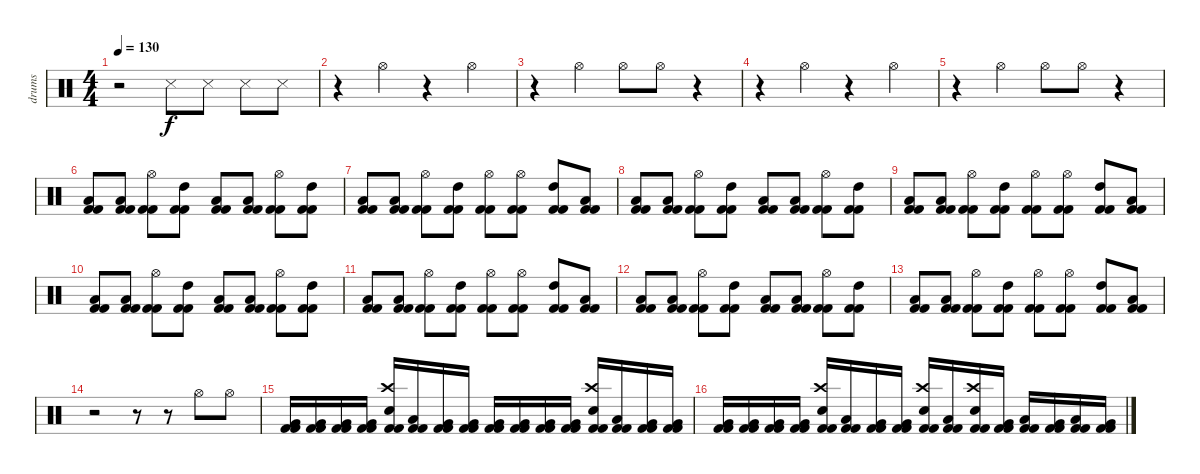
\track ("drums" "drums") {instrument percussion}
\staff {score}
\articulation defaults
\ts (4 4)
\tempo 130
\clef neutral
\ks c
r.2{dy f} "Snare (side stick) 3".8 "Snare (side stick) 3".8 "Snare (side stick) 3".8 "Snare (side stick) 3".8 |
r.4 "Hi-Hat (open)".4 r.4 "Hi-Hat (open)".4 |
r.4 "Hi-Hat (open)".4 "Hi-Hat (open)".8 "Hi-Hat (open)".8 r.4 |
r.4 "Hi-Hat (open)".4 r.4 "Hi-Hat (open)".4 |
r.4 "Hi-Hat (open)".4 "Hi-Hat (open)".8 "Hi-Hat (open)".8 r.4 |
("Low Tom (hit)" "Kick (hit) 2" "Kick (hit) 2").8 ("Low Tom (hit)" "Kick (hit) 2" "Kick (hit) 2").8 ("Hi-Hat (open)" "Kick (hit) 2" "Kick (hit) 2").8 ("High Tom (hit)" "Kick (hit) 2" "Kick (hit) 2").8 ("Low Tom (hit)" "Kick (hit) 2" "Kick (hit) 2").8 ("Low Tom (hit)" "Kick (hit) 2" "Kick (hit) 2").8 ("Hi-Hat (open)" "Kick (hit) 2" "Kick (hit) 2").8 ("High Tom (hit)" "Kick (hit) 2" "Kick (hit) 2").8 |
("Low Tom (hit)" "Kick (hit) 2" "Kick (hit) 2").8 ("Low Tom (hit)" "Kick (hit) 2" "Kick (hit) 2").8 ("Hi-Hat (open)" "Kick (hit) 2" "Kick (hit) 2").8 ("High Tom (hit)" "Kick (hit) 2" "Kick (hit) 2").8 ("Hi-Hat (open)" "Kick (hit) 2" "Kick (hit) 2").8 ("Hi-Hat (open)" "Kick (hit) 2" "Kick (hit) 2").8 ("High Tom (hit)" "Kick (hit) 2" "Kick (hit) 2").8 ("Low Tom (hit)" "Kick (hit) 2" "Kick (hit) 2").8 |
("Low Tom (hit)" "Kick (hit) 2" "Kick (hit) 2").8 ("Low Tom (hit)" "Kick (hit) 2" "Kick (hit) 2").8 ("Hi-Hat (open)" "Kick (hit) 2" "Kick (hit) 2").8 ("High Tom (hit)" "Kick (hit) 2" "Kick (hit) 2").8 ("Low Tom (hit)" "Kick (hit) 2" "Kick (hit) 2").8 ("Low Tom (hit)" "Kick (hit) 2" "Kick (hit) 2").8 ("Hi-Hat (open)" "Kick (hit) 2" "Kick (hit) 2").8 ("High Tom (hit)" "Kick (hit) 2" "Kick (hit) 2").8 |
("Low Tom (hit)" "Kick (hit) 2" "Kick (hit) 2").8 ("Low Tom (hit)" "Kick (hit) 2" "Kick (hit) 2").8 ("Hi-Hat (open)" "Kick (hit) 2" "Kick (hit) 2").8 ("High Tom (hit)" "Kick (hit) 2" "Kick (hit) 2").8 ("Hi-Hat (open)" "Kick (hit) 2" "Kick (hit) 2").8 ("Hi-Hat (open)" "Kick (hit) 2" "Kick (hit) 2").8 ("High Tom (hit)" "Kick (hit) 2" "Kick (hit) 2").8 ("Low Tom (hit)" "Kick (hit) 2" "Kick (hit) 2").8 |
("Low Tom (hit)" "Kick (hit) 2" "Kick (hit) 2").8 ("Low Tom (hit)" "Kick (hit) 2" "Kick (hit) 2").8 ("Hi-Hat (open)" "Kick (hit) 2" "Kick (hit) 2").8 ("High Tom (hit)" "Kick (hit) 2" "Kick (hit) 2").8 ("Low Tom (hit)" "Kick (hit) 2" "Kick (hit) 2").8 ("Low Tom (hit)" "Kick (hit) 2" "Kick (hit) 2").8 ("Hi-Hat (open)" "Kick (hit) 2" "Kick (hit) 2").8 ("High Tom (hit)" "Kick (hit) 2" "Kick (hit) 2").8 |
("Low Tom (hit)" "Kick (hit) 2" "Kick (hit) 2").8 ("Low Tom (hit)" "Kick (hit) 2" "Kick (hit) 2").8 ("Hi-Hat (open)" "Kick (hit) 2" "Kick (hit) 2").8 ("High Tom (hit)" "Kick (hit) 2" "Kick (hit) 2").8 ("Hi-Hat (open)" "Kick (hit) 2" "Kick (hit) 2").8 ("Hi-Hat (open)" "Kick (hit) 2" "Kick (hit) 2").8 ("High Tom (hit)" "Kick (hit) 2" "Kick (hit) 2").8 ("Low Tom (hit)" "Kick (hit) 2" "Kick (hit) 2").8 |
("Low Tom (hit)" "Kick (hit) 2" "Kick (hit) 2").8 ("Low Tom (hit)" "Kick (hit) 2" "Kick (hit) 2").8 ("Hi-Hat (open)" "Kick (hit) 2" "Kick (hit) 2").8 ("High Tom (hit)" "Kick (hit) 2" "Kick (hit) 2").8 ("Low Tom (hit)" "Kick (hit) 2" "Kick (hit) 2").8 ("Low Tom (hit)" "Kick (hit) 2" "Kick (hit) 2").8 ("Hi-Hat (open)" "Kick (hit) 2" "Kick (hit) 2").8 ("High Tom (hit)" "Kick (hit) 2" "Kick (hit) 2").8 |
("Low Tom (hit)" "Kick (hit) 2" "Kick (hit) 2").8 ("Low Tom (hit)" "Kick (hit) 2" "Kick (hit) 2").8 ("Hi-Hat (open)" "Kick (hit) 2" "Kick (hit) 2").8 ("High Tom (hit)" "Kick (hit) 2" "Kick (hit) 2").8 ("Hi-Hat (open)" "Kick (hit) 2" "Kick (hit) 2").8 ("Hi-Hat (open)" "Kick (hit) 2" "Kick (hit) 2").8 ("High Tom (hit)" "Kick (hit) 2" "Kick (hit) 2").8 ("Low Tom (hit)" "Kick (hit) 2" "Kick (hit) 2").8 |
r.2 r.8 r.8 "Hi-Hat (open)".8 "Hi-Hat (open)".8 |
("Very Low Tom (hit)" "Kick (hit) 2" "Kick (hit) 2").16 ("Very Low Tom (hit)" "Kick (hit) 2" "Kick (hit) 2").16 ("Very Low Tom (hit)" "Kick (hit) 2" "Kick (hit) 2").16 ("Very Low Tom (hit)" "Kick (hit) 2" "Kick (hit) 2").16 ("Crash high (hit)" "Electric Snare (hit)" "Kick (hit) 2" "Kick (hit) 2").16 ("Low Tom (hit)" "Kick (hit) 2" "Kick (hit) 2").16 ("Very Low Tom (hit)" "Kick (hit) 2" "Kick (hit) 2").16 ("Very Low Tom (hit)" "Kick (hit) 2" "Kick (hit) 2").16 ("Very Low Tom (hit)" "Kick (hit) 2" "Kick (hit) 2").16 ("Very Low Tom (hit)" "Kick (hit) 2" "Kick (hit) 2").16 ("Very Low Tom (hit)" "Kick (hit) 2" "Kick (hit) 2").16 ("Very Low Tom (hit)" "Kick (hit) 2" "Kick (hit) 2").16 ("Crash high (hit)" "Electric Snare (hit)" "Kick (hit) 2" "Kick (hit) 2").16 ("Low Tom (hit)" "Kick (hit) 2" "Kick (hit) 2").16 ("Very Low Tom (hit)" "Kick (hit) 2" "Kick (hit) 2").16 ("Very Low Tom (hit)" "Kick (hit) 2" "Kick (hit) 2").16 |
("Very Low Tom (hit)" "Kick (hit) 2" "Kick (hit) 2").16 ("Very Low Tom (hit)" "Kick (hit) 2" "Kick (hit) 2").16 ("Very Low Tom (hit)" "Kick (hit) 2" "Kick (hit) 2").16 ("Very Low Tom (hit)" "Kick (hit) 2" "Kick (hit) 2").16 ("Crash high (hit)" "Electric Snare (hit)" "Kick (hit) 2" "Kick (hit) 2").16 ("Low Tom (hit)" "Kick (hit) 2" "Kick (hit) 2").16 ("Very Low Tom (hit)" "Kick (hit) 2" "Kick (hit) 2").16 ("Very Low Tom (hit)" "Kick (hit) 2" "Kick (hit) 2").16 ("Crash high (hit)" "Electric Snare (hit)" "Kick (hit) 2" "Kick (hit) 2").16 ("Low Tom (hit)" "Kick (hit) 2" "Kick (hit) 2").16 ("Crash high (hit)" "Electric Snare (hit)" "Kick (hit) 2" "Kick (hit) 2").16 ("Very Low Tom (hit)" "Kick (hit) 2" "Kick (hit) 2").16 ("Low Tom (hit)" "Kick (hit) 2" "Kick (hit) 2").16 ("Very Low Tom (hit)" "Kick (hit) 2" "Kick (hit) 2").16 ("Low Tom (hit)" "Kick (hit) 2" "Kick (hit) 2").16 ("Very Low Tom (hit)" "Kick (hit) 2" "Kick (hit) 2").16
